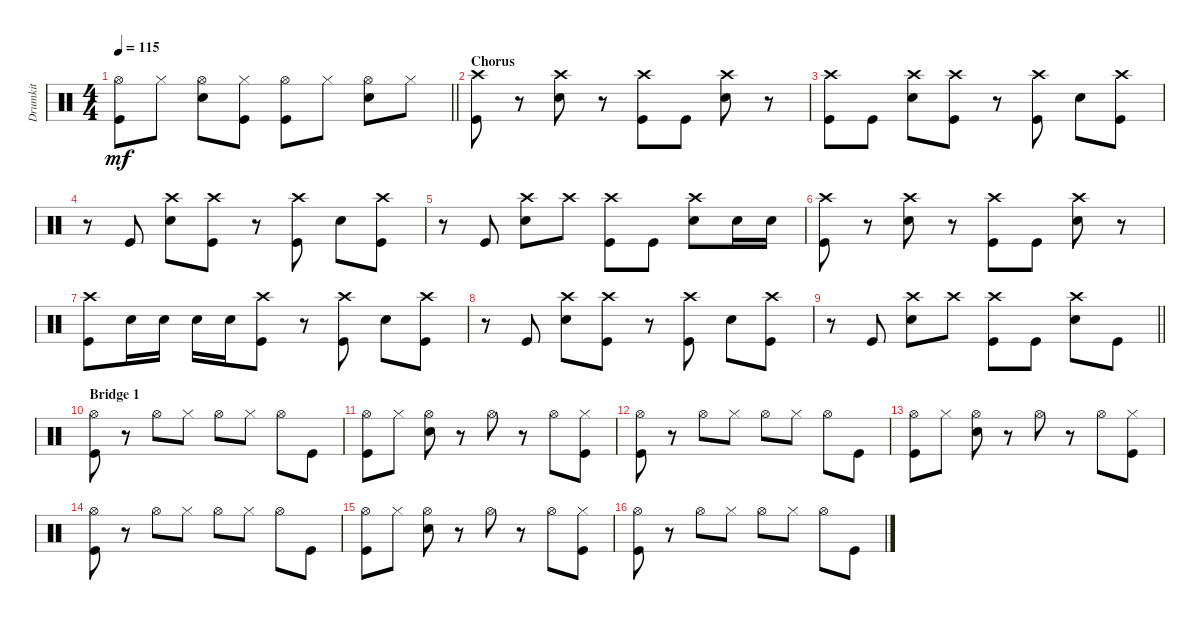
\track ("Drumkit" "Drumkit") {instrument percussion}
\staff {score}
\articulation defaults
\ts (4 4)
\tempo 115
\clef neutral
\barLineRight lightlight
\ks c
("Hi-Hat (open)" "Kick (hit)").8{dy mf} "Hi-Hat (closed)".8 ("Hi-Hat (open)" "Snare (hit) 2").8 ("Hi-Hat (closed)" "Kick (hit)").8 ("Hi-Hat (open)" "Kick (hit)").8 "Hi-Hat (closed)".8 ("Hi-Hat (open)" "Snare (hit) 2").8 "Hi-Hat (closed)".8 |
\section ("" "Chorus")
("Kick (hit)" "Crash high (hit)").8 r.8 ("Snare (hit) 2" "Crash high (hit)").8 r.8 ("Kick (hit)" "Crash high (hit)").8 "Kick (hit)".8 ("Snare (hit) 2" "Crash high (hit)").8 r.8 |
("Kick (hit)" "Crash high (hit)").8 "Kick (hit)".8 ("Snare (hit) 2" "Crash high (hit)").8 ("Kick (hit)" "Crash high (hit)").8 r.8 ("Kick (hit)" "Crash high (hit)").8 "Snare (hit) 2".8 ("Kick (hit)" "Crash high (hit)").8 |
r.8 "Kick (hit)".8 ("Snare (hit) 2" "Crash high (hit)").8 ("Kick (hit)" "Crash high (hit)").8 r.8 ("Kick (hit)" "Crash high (hit)").8 "Snare (hit) 2".8 ("Kick (hit)" "Crash high (hit)").8 |
r.8 "Kick (hit)".8 ("Snare (hit) 2" "Crash high (hit)").8 "Crash high (hit)".8 ("Kick (hit)" "Crash high (hit)").8 "Kick (hit)".8 ("Snare (hit) 2" "Crash high (hit)").8 "Snare (hit) 2".16 "Snare (hit) 2".16 |
("Kick (hit)" "Crash high (hit)").8 r.8 ("Snare (hit) 2" "Crash high (hit)").8 r.8 ("Kick (hit)" "Crash high (hit)").8 "Kick (hit)".8 ("Snare (hit) 2" "Crash high (hit)").8 r.8 |
("Kick (hit)" "Crash high (hit)").8 "Snare (hit) 2".16 "Snare (hit) 2".16 "Snare (hit) 2".16 "Snare (hit) 2".16 ("Kick (hit)" "Crash high (hit)").8 r.8 ("Kick (hit)" "Crash high (hit)").8 "Snare (hit) 2".8 ("Kick (hit)" "Crash high (hit)").8 |
r.8 "Kick (hit)".8 ("Snare (hit) 2" "Crash high (hit)").8 ("Kick (hit)" "Crash high (hit)").8 r.8 ("Kick (hit)" "Crash high (hit)").8 "Snare (hit) 2".8 ("Kick (hit)" "Crash high (hit)").8 |
\barLineRight lightlight
r.8 "Kick (hit)".8 ("Snare (hit) 2" "Crash high (hit)").8 "Crash high (hit)".8 ("Kick (hit)" "Crash high (hit)").8 "Kick (hit)".8 ("Snare (hit) 2" "Crash high (hit)").8 "Kick (hit)".8 |
\section ("" "Bridge 1")
("Hi-Hat (open)" "Kick (hit)").8 r.8 "Hi-Hat (open)".8 "Hi-Hat (closed)".8 "Hi-Hat (open)".8 "Hi-Hat (closed)".8 "Hi-Hat (open)".8 "Kick (hit)".8 |
("Hi-Hat (open)" "Kick (hit)").8 "Hi-Hat (closed)".8 ("Hi-Hat (open)" "Snare (hit) 2").8 r.8 "Hi-Hat (open)".8 r.8 "Hi-Hat (open)".8 ("Kick (hit)" "Hi-Hat (closed)").8 |
("Hi-Hat (open)" "Kick (hit)").8 r.8 "Hi-Hat (open)".8 "Hi-Hat (closed)".8 "Hi-Hat (open)".8 "Hi-Hat (closed)".8 "Hi-Hat (open)".8 "Kick (hit)".8 |
("Hi-Hat (open)" "Kick (hit)").8 "Hi-Hat (closed)".8 ("Hi-Hat (open)" "Snare (hit) 2").8 r.8 "Hi-Hat (open)".8 r.8 "Hi-Hat (open)".8 ("Kick (hit)" "Hi-Hat (closed)").8 |
("Hi-Hat (open)" "Kick (hit)").8 r.8 "Hi-Hat (open)".8 "Hi-Hat (closed)".8 "Hi-Hat (open)".8 "Hi-Hat (closed)".8 "Hi-Hat (open)".8 "Kick (hit)".8 |
("Hi-Hat (open)" "Kick (hit)").8 "Hi-Hat (closed)".8 ("Hi-Hat (open)" "Snare (hit) 2").8 r.8 "Hi-Hat (open)".8 r.8 "Hi-Hat (open)".8 ("Kick (hit)" "Hi-Hat (closed)").8 |
("Hi-Hat (open)" "Kick (hit)").8 r.8 "Hi-Hat (open)".8 "Hi-Hat (closed)".8 "Hi-Hat (open)".8 "Hi-Hat (closed)".8 "Hi-Hat (open)".8 "Kick (hit)".8
